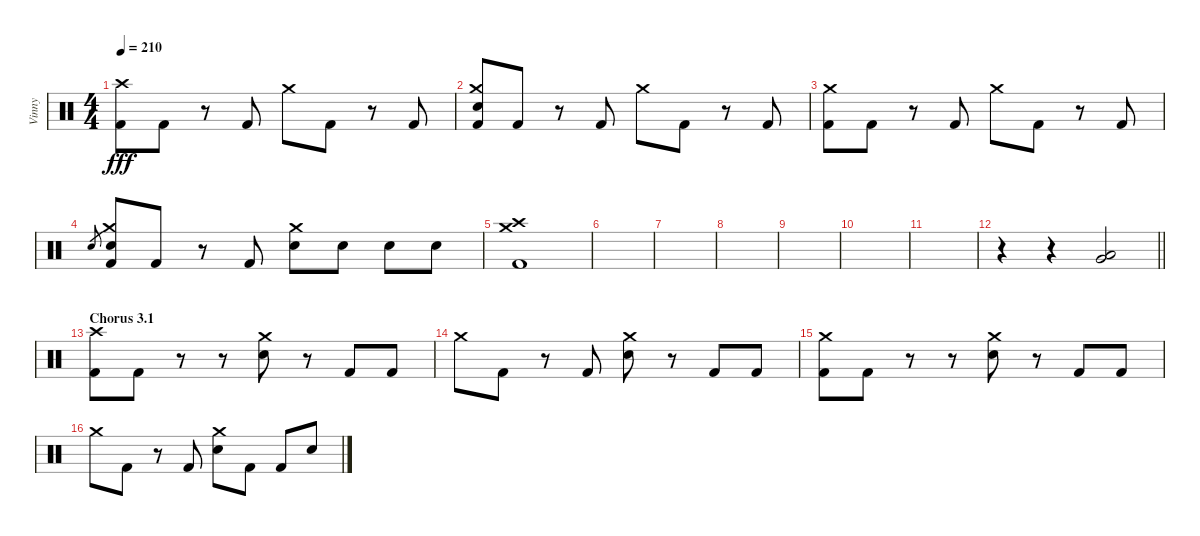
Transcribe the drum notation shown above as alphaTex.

\track ("Vinny" "Vinny") {instrument percussion}
\staff {score}
\articulation defaults
\ts (4 4)
\tempo 210
\clef neutral
\ks c
("Crash high (hit)" "Kick (hit) 2").8{dy fff} "Kick (hit) 2".8 r.8 "Kick (hit) 2".8 "Crash medium (hit)".8 "Kick (hit) 2".8 r.8 "Kick (hit) 2".8 |
("Crash medium (hit)" "Electric Snare (hit)" "Kick (hit) 2").8 "Kick (hit) 2".8 r.8 "Kick (hit) 2".8 "Crash medium (hit)".8 "Kick (hit) 2".8 r.8 "Kick (hit) 2".8 |
("Crash medium (hit)" "Kick (hit) 2").8 "Kick (hit) 2".8 r.8 "Kick (hit) 2".8 "Crash medium (hit)".8 "Kick (hit) 2".8 r.8 "Kick (hit) 2".8 |
"Electric Snare (hit)".8{gr} ("Crash medium (hit)" "Electric Snare (hit)" "Kick (hit) 2").8 "Kick (hit) 2".8 r.8 "Kick (hit) 2".8 ("Crash medium (hit)" "Electric Snare (hit)").8 "Electric Snare (hit)".8 "Electric Snare (hit)".8 "Electric Snare (hit)".8 |
("Crash high (hit)" "Crash medium (hit)" "Kick (hit) 2").1 |
|
|
|
|
|
|
\barLineRight lightlight
r.4 r.4 ("Very Low Tom (hit)" "Low Floor Tom (hit)").2 |
\section ("" "Chorus 3.1")
("Crash high (hit)" "Kick (hit) 2").8 "Kick (hit) 2".8 r.8 r.8 ("Crash medium (hit)" "Electric Snare (hit)").8 r.8 "Kick (hit) 2".8 "Kick (hit) 2".8 |
"Crash medium (hit)".8 "Kick (hit) 2".8 r.8 "Kick (hit) 2".8 ("Crash medium (hit)" "Electric Snare (hit)").8 r.8 "Kick (hit) 2".8 "Kick (hit) 2".8 |
("Crash medium (hit)" "Kick (hit) 2").8 "Kick (hit) 2".8 r.8 r.8 ("Crash medium (hit)" "Electric Snare (hit)").8 r.8 "Kick (hit) 2".8 "Kick (hit) 2".8 |
"Crash medium (hit)".8 "Kick (hit) 2".8 r.8 "Kick (hit) 2".8 ("Crash medium (hit)" "Electric Snare (hit)").8 "Kick (hit) 2".8 "Kick (hit) 2".8 "Electric Snare (hit)".8
